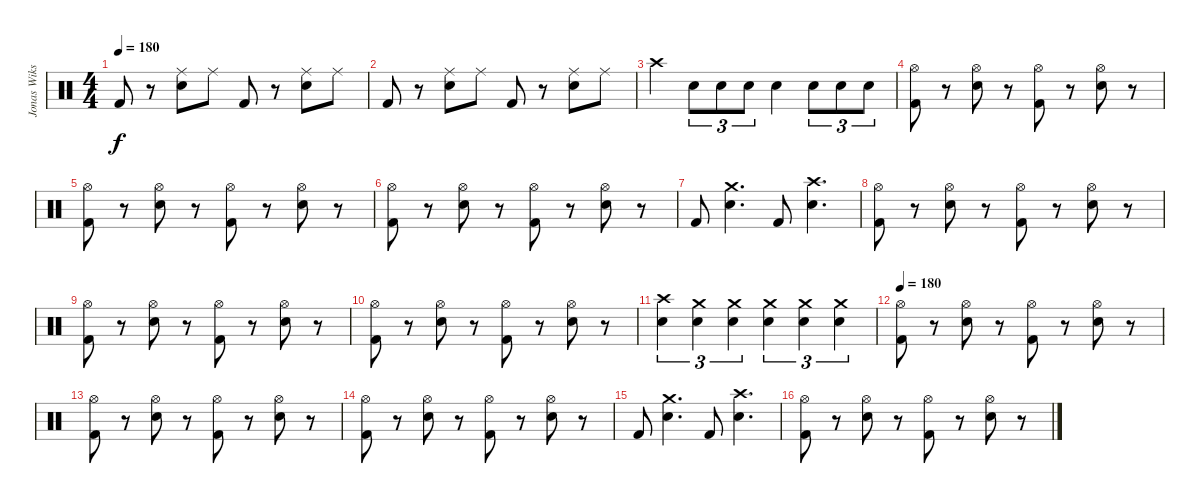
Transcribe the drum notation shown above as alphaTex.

\track ("Jonas Wikstrand" "Jonas Wiks") {instrument percussion}
\staff {score}
\articulation defaults
\ts (4 4)
\tempo 180
\clef neutral
\ks c "Kick (hit) 2".8{dy f}
r.8 ("Ride (middle)" "Snare (hit) 2").8 "Ride (middle)".8 "Kick (hit) 2".8 r.8 ("Ride (middle)" "Snare (hit) 2").8 "Ride (middle)".8 |
"Kick (hit) 2".8 r.8 ("Ride (middle)" "Snare (hit) 2").8 "Ride (middle)".8 "Kick (hit) 2".8 r.8 ("Ride (middle)" "Snare (hit) 2").8 "Ride (middle)".8 |
"Crash high (hit)".4 "Snare (hit) 2".8{tu (3 2)} "Snare (hit) 2".8{tu (3 2)} "Snare (hit) 2".8{tu (3 2)} "Snare (hit) 2".4 "Snare (hit) 2".8{tu (3 2)} "Snare (hit) 2".8{tu (3 2)} "Snare (hit) 2".8{tu (3 2)} |
("Hi-Hat (open)" "Kick (hit) 2").8 r.8 ("Hi-Hat (open)" "Snare (hit) 2").8 r.8 ("Hi-Hat (open)" "Kick (hit) 2").8 r.8 ("Hi-Hat (open)" "Snare (hit) 2").8 r.8 |
("Hi-Hat (open)" "Kick (hit) 2").8 r.8 ("Hi-Hat (open)" "Snare (hit) 2").8 r.8 ("Hi-Hat (open)" "Kick (hit) 2").8 r.8 ("Hi-Hat (open)" "Snare (hit) 2").8 r.8 |
("Hi-Hat (open)" "Kick (hit) 2").8 r.8 ("Hi-Hat (open)" "Snare (hit) 2").8 r.8 ("Hi-Hat (open)" "Kick (hit) 2").8 r.8 ("Hi-Hat (open)" "Snare (hit) 2").8 r.8 |
"Kick (hit) 2".8 ("Crash medium (hit)" "Snare (hit) 2").4{d} "Kick (hit) 2".8 ("Crash high (hit)" "Snare (hit) 2").4{d} |
("Hi-Hat (open)" "Kick (hit) 2").8 r.8 ("Hi-Hat (open)" "Snare (hit) 2").8 r.8 ("Hi-Hat (open)" "Kick (hit) 2").8 r.8 ("Hi-Hat (open)" "Snare (hit) 2").8 r.8 |
("Hi-Hat (open)" "Kick (hit) 2").8 r.8 ("Hi-Hat (open)" "Snare (hit) 2").8 r.8 ("Hi-Hat (open)" "Kick (hit) 2").8 r.8 ("Hi-Hat (open)" "Snare (hit) 2").8 r.8 |
("Hi-Hat (open)" "Kick (hit) 2").8 r.8 ("Hi-Hat (open)" "Snare (hit) 2").8 r.8 ("Hi-Hat (open)" "Kick (hit) 2").8 r.8 ("Hi-Hat (open)" "Snare (hit) 2").8 r.8 |
("Crash high (hit)" "Snare (hit) 2").4{tu (3 2)} ("Crash medium (hit)" "Snare (hit) 2").4{tu (3 2)} ("Crash medium (hit)" "Snare (hit) 2").4{tu (3 2)} ("Crash medium (hit)" "Snare (hit) 2").4{tu (3 2)} ("Crash medium (hit)" "Snare (hit) 2").4{tu (3 2)} ("Crash medium (hit)" "Snare (hit) 2").4{tu (3 2)} |
\tempo 180
("Hi-Hat (open)" "Kick (hit) 2").8 r.8 ("Hi-Hat (open)" "Snare (hit) 2").8 r.8 ("Hi-Hat (open)" "Kick (hit) 2").8 r.8 ("Hi-Hat (open)" "Snare (hit) 2").8 r.8 |
("Hi-Hat (open)" "Kick (hit) 2").8 r.8 ("Hi-Hat (open)" "Snare (hit) 2").8 r.8 ("Hi-Hat (open)" "Kick (hit) 2").8 r.8 ("Hi-Hat (open)" "Snare (hit) 2").8 r.8 |
("Hi-Hat (open)" "Kick (hit) 2").8 r.8 ("Hi-Hat (open)" "Snare (hit) 2").8 r.8 ("Hi-Hat (open)" "Kick (hit) 2").8 r.8 ("Hi-Hat (open)" "Snare (hit) 2").8 r.8 |
"Kick (hit) 2".8 ("Crash medium (hit)" "Snare (hit) 2").4{d} "Kick (hit) 2".8 ("Crash high (hit)" "Snare (hit) 2").4{d} |
("Hi-Hat (open)" "Kick (hit) 2").8 r.8 ("Hi-Hat (open)" "Snare (hit) 2").8 r.8 ("Hi-Hat (open)" "Kick (hit) 2").8 r.8 ("Hi-Hat (open)" "Snare (hit) 2").8 r.8
